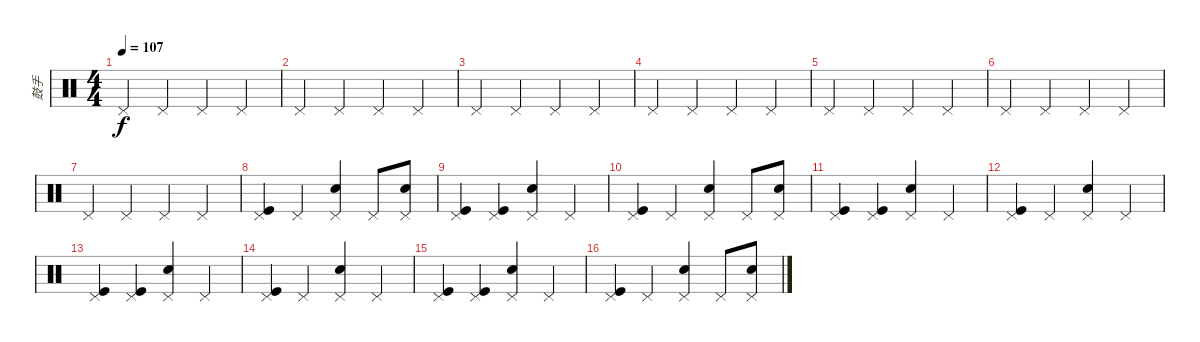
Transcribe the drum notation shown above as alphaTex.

\track ("鼓手" "鼓手") {instrument percussion}
\staff {score}
\articulation defaults
\ts (4 4)
\tempo 107
\clef neutral
\ks c "Pedal Hi-Hat (hit)".4{dy f} "Pedal Hi-Hat (hit)".4 "Pedal Hi-Hat (hit)".4 "Pedal Hi-Hat (hit)".4
|
"Pedal Hi-Hat (hit)".4 "Pedal Hi-Hat (hit)".4 "Pedal Hi-Hat (hit)".4 "Pedal Hi-Hat (hit)".4 |
"Pedal Hi-Hat (hit)".4 "Pedal Hi-Hat (hit)".4 "Pedal Hi-Hat (hit)".4 "Pedal Hi-Hat (hit)".4 |
"Pedal Hi-Hat (hit)".4 "Pedal Hi-Hat (hit)".4 "Pedal Hi-Hat (hit)".4 "Pedal Hi-Hat (hit)".4 |
"Pedal Hi-Hat (hit)".4 "Pedal Hi-Hat (hit)".4 "Pedal Hi-Hat (hit)".4 "Pedal Hi-Hat (hit)".4 |
"Pedal Hi-Hat (hit)".4 "Pedal Hi-Hat (hit)".4 "Pedal Hi-Hat (hit)".4 "Pedal Hi-Hat (hit)".4 |
"Pedal Hi-Hat (hit)".4 "Pedal Hi-Hat (hit)".4 "Pedal Hi-Hat (hit)".4 "Pedal Hi-Hat (hit)".4 |
("Pedal Hi-Hat (hit)" "Kick (hit)").4 "Pedal Hi-Hat (hit)".4 ("Pedal Hi-Hat (hit)" "Snare (hit) 2").4 "Pedal Hi-Hat (hit)".8 ("Pedal Hi-Hat (hit)" "Snare (hit) 2").8 |
("Pedal Hi-Hat (hit)" "Kick (hit)").4 ("Pedal Hi-Hat (hit)" "Kick (hit)").4 ("Pedal Hi-Hat (hit)" "Snare (hit) 2").4 "Pedal Hi-Hat (hit)".4 |
("Pedal Hi-Hat (hit)" "Kick (hit)").4 "Pedal Hi-Hat (hit)".4 ("Pedal Hi-Hat (hit)" "Snare (hit) 2").4 "Pedal Hi-Hat (hit)".8 ("Pedal Hi-Hat (hit)" "Snare (hit) 2").8 |
("Pedal Hi-Hat (hit)" "Kick (hit)").4 ("Pedal Hi-Hat (hit)" "Kick (hit)").4 ("Pedal Hi-Hat (hit)" "Snare (hit) 2").4 "Pedal Hi-Hat (hit)".4 |
("Pedal Hi-Hat (hit)" "Kick (hit)").4 "Pedal Hi-Hat (hit)".4 ("Pedal Hi-Hat (hit)" "Snare (hit) 2").4 "Pedal Hi-Hat (hit)".4 |
("Pedal Hi-Hat (hit)" "Kick (hit)").4 ("Pedal Hi-Hat (hit)" "Kick (hit)").4 ("Pedal Hi-Hat (hit)" "Snare (hit) 2").4 "Pedal Hi-Hat (hit)".4 |
("Pedal Hi-Hat (hit)" "Kick (hit)").4 "Pedal Hi-Hat (hit)".4 ("Pedal Hi-Hat (hit)" "Snare (hit) 2").4 "Pedal Hi-Hat (hit)".4 |
("Pedal Hi-Hat (hit)" "Kick (hit)").4 ("Pedal Hi-Hat (hit)" "Kick (hit)").4 ("Pedal Hi-Hat (hit)" "Snare (hit) 2").4 "Pedal Hi-Hat (hit)".4 |
("Pedal Hi-Hat (hit)" "Kick (hit)").4 "Pedal Hi-Hat (hit)".4 ("Pedal Hi-Hat (hit)" "Snare (hit) 2").4 "Pedal Hi-Hat (hit)".8 ("Pedal Hi-Hat (hit)" "Snare (hit) 2").8
